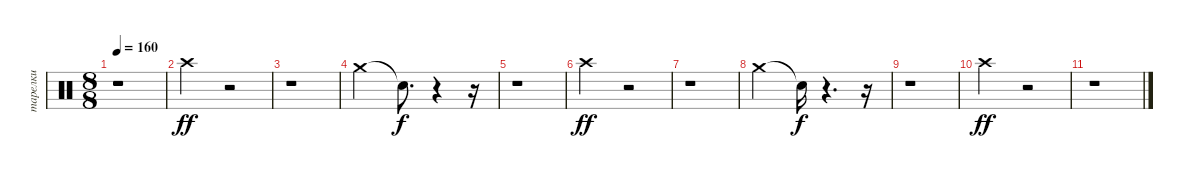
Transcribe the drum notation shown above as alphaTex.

\track ("тарелки" "тарелки") {instrument percussion}
\staff {score}
\articulation defaults
\ts (8 8)
\tempo 160
\clef neutral
\ks c
r.1{dy f} |
"Crash high (hit)".2{dy ff volume 15} r.2 |
r.1 |
"Crash medium (hit)".2{volume 12} "Snare (hit)"{t}.8{d dy f} r.4 r.16 |
r.1 |
"Crash high (hit)".2{dy ff volume 9} r.2 |
r.1 |
"Crash medium (hit)".2{volume 6} "Snare (hit)"{t}.16{dy f} r.4{d} r.16 |
r.1 |
"Crash high (hit)".2{dy ff volume 2} r.2 |
r.1
